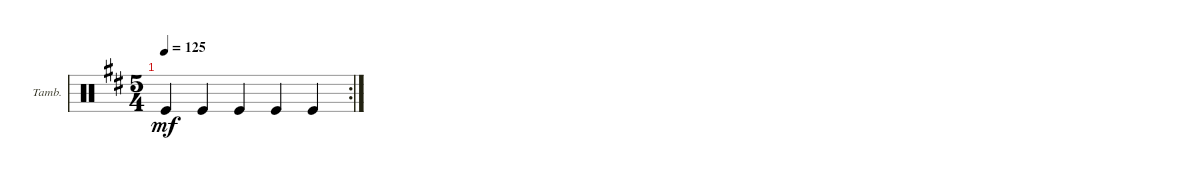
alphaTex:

\defaultSystemsLayout 4
\bracketExtendMode groupsimilarinstruments
\firstSystemTrackNameOrientation horizontal
\otherSystemsTrackNameOrientation horizontal
\track ("ЧИК-ЧИК (ШЕЙКЕР)" "Tamb.") {instrument percussion}
\staff {score}
\articulation defaults
\rc 2
\ts (5 4)
\tempo 125
\clef neutral
\ks bminor "Kick (hit)".4{dy mf} "Kick (hit)".4 "Kick (hit)".4 "Kick (hit)".4 "Kick (hit)".4
